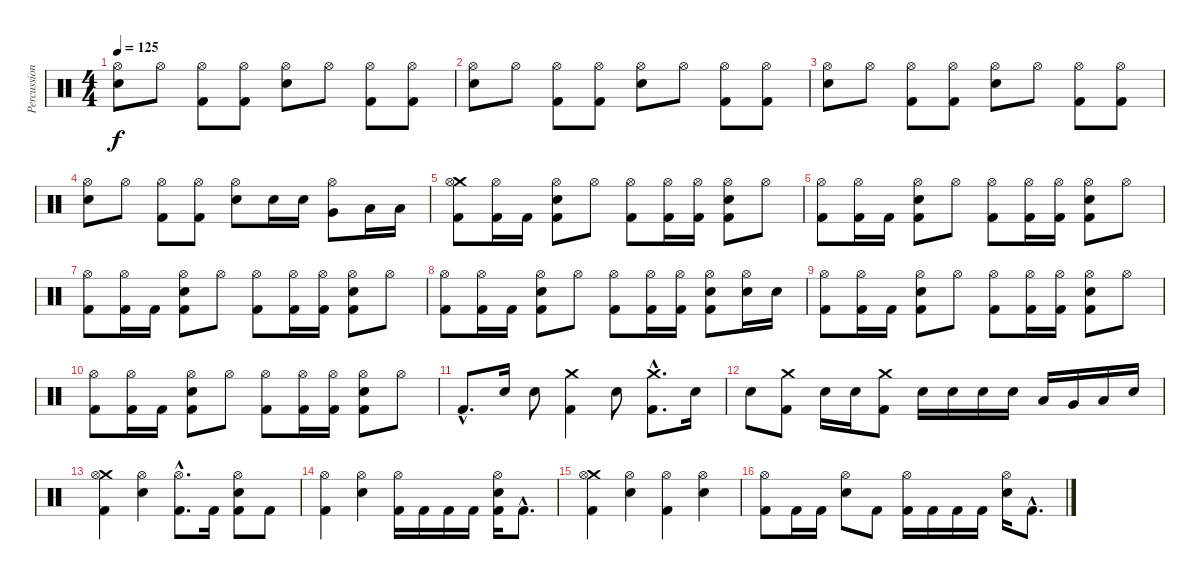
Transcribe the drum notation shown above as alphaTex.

\track ("Percussion" "Percussion") {instrument percussion}
\staff {score}
\articulation defaults
\ts (4 4)
\tempo 125
\clef neutral
\ks c
("Hi-Hat (open)" "Electric Snare (hit)").8{dy f} "Hi-Hat (open)".8 ("Hi-Hat (open)" "Kick (hit) 2").8 ("Hi-Hat (open)" "Kick (hit) 2").8 ("Hi-Hat (open)" "Electric Snare (hit)").8 "Hi-Hat (open)".8 ("Hi-Hat (open)" "Kick (hit) 2").8 ("Hi-Hat (open)" "Kick (hit) 2").8 |
("Hi-Hat (open)" "Electric Snare (hit)").8 "Hi-Hat (open)".8 ("Hi-Hat (open)" "Kick (hit) 2").8 ("Hi-Hat (open)" "Kick (hit) 2").8 ("Hi-Hat (open)" "Electric Snare (hit)").8 "Hi-Hat (open)".8 ("Hi-Hat (open)" "Kick (hit) 2").8 ("Hi-Hat (open)" "Kick (hit) 2").8 |
("Hi-Hat (open)" "Electric Snare (hit)").8 "Hi-Hat (open)".8 ("Hi-Hat (open)" "Kick (hit) 2").8 ("Hi-Hat (open)" "Kick (hit) 2").8 ("Hi-Hat (open)" "Electric Snare (hit)").8 "Hi-Hat (open)".8 ("Hi-Hat (open)" "Kick (hit) 2").8 ("Hi-Hat (open)" "Kick (hit) 2").8 |
("Hi-Hat (open)" "Electric Snare (hit)").8 "Hi-Hat (open)".8 ("Hi-Hat (open)" "Kick (hit) 2").8 ("Hi-Hat (open)" "Kick (hit) 2").8 ("Hi-Hat (open)" "Electric Snare (hit)").8 "Electric Snare (hit)".16 "Electric Snare (hit)".16 ("Hi-Hat (open)" "Very Low Tom (hit)").8 "Low Tom (hit)".16 "Low Tom (hit)".16 |
("Crash medium (hit)" "Hi-Hat (open)" "Kick (hit) 2").8 ("Hi-Hat (open)" "Kick (hit) 2").16 "Kick (hit) 2".16 ("Hi-Hat (open)" "Electric Snare (hit)" "Kick (hit) 2").8 "Hi-Hat (open)".8 ("Hi-Hat (open)" "Kick (hit) 2").8 ("Hi-Hat (open)" "Kick (hit) 2").16 ("Hi-Hat (open)" "Kick (hit) 2").16 ("Hi-Hat (open)" "Electric Snare (hit)" "Kick (hit) 2").8 "Hi-Hat (open)".8 |
("Hi-Hat (open)" "Kick (hit) 2").8 ("Hi-Hat (open)" "Kick (hit) 2").16 "Kick (hit) 2".16 ("Hi-Hat (open)" "Electric Snare (hit)" "Kick (hit) 2").8 "Hi-Hat (open)".8 ("Hi-Hat (open)" "Kick (hit) 2").8 ("Hi-Hat (open)" "Kick (hit) 2").16 ("Hi-Hat (open)" "Kick (hit) 2").16 ("Hi-Hat (open)" "Electric Snare (hit)" "Kick (hit) 2").8 "Hi-Hat (open)".8 |
("Hi-Hat (open)" "Kick (hit) 2").8 ("Hi-Hat (open)" "Kick (hit) 2").16 "Kick (hit) 2".16 ("Hi-Hat (open)" "Electric Snare (hit)" "Kick (hit) 2").8 "Hi-Hat (open)".8 ("Hi-Hat (open)" "Kick (hit) 2").8 ("Hi-Hat (open)" "Kick (hit) 2").16 ("Hi-Hat (open)" "Kick (hit) 2").16 ("Hi-Hat (open)" "Electric Snare (hit)" "Kick (hit) 2").8 "Hi-Hat (open)".8 |
("Hi-Hat (open)" "Kick (hit) 2").8 ("Hi-Hat (open)" "Kick (hit) 2").16 "Kick (hit) 2".16 ("Hi-Hat (open)" "Electric Snare (hit)" "Kick (hit) 2").8 "Hi-Hat (open)".8 ("Hi-Hat (open)" "Kick (hit) 2").8 ("Hi-Hat (open)" "Kick (hit) 2").16 ("Hi-Hat (open)" "Kick (hit) 2").16 ("Hi-Hat (open)" "Electric Snare (hit)" "Kick (hit) 2").8 ("Hi-Hat (open)" "Electric Snare (hit)").16 "Electric Snare (hit)".16 |
("Hi-Hat (open)" "Kick (hit) 2").8 ("Hi-Hat (open)" "Kick (hit) 2").16 "Kick (hit) 2".16 ("Hi-Hat (open)" "Electric Snare (hit)" "Kick (hit) 2").8 "Hi-Hat (open)".8 ("Hi-Hat (open)" "Kick (hit) 2").8 ("Hi-Hat (open)" "Kick (hit) 2").16 ("Hi-Hat (open)" "Kick (hit) 2").16 ("Hi-Hat (open)" "Electric Snare (hit)" "Kick (hit) 2").8 "Hi-Hat (open)".8 |
("Hi-Hat (open)" "Kick (hit) 2").8 ("Hi-Hat (open)" "Kick (hit) 2").16 "Kick (hit) 2".16 ("Hi-Hat (open)" "Electric Snare (hit)" "Kick (hit) 2").8 "Hi-Hat (open)".8 ("Hi-Hat (open)" "Kick (hit) 2").8 ("Hi-Hat (open)" "Kick (hit) 2").16 ("Hi-Hat (open)" "Kick (hit) 2").16 ("Hi-Hat (open)" "Electric Snare (hit)" "Kick (hit) 2").8 "Hi-Hat (open)".8 |
"Kick (hit) 2"{hac}.8{d} "Electric Snare (hit)".16 "Electric Snare (hit)".8 ("Crash medium (hit)" "Kick (hit) 2").4 "Electric Snare (hit)".8 ("Crash medium (hit)" "Kick (hit) 2"{hac}).8{d} "Electric Snare (hit)".16 |
"Electric Snare (hit)".8 ("Crash medium (hit)" "Kick (hit) 2").8 "Electric Snare (hit)".16 "Electric Snare (hit)".16 ("Crash medium (hit)" "Kick (hit) 2").8 "Electric Snare (hit)".16 "Electric Snare (hit)".16 "Electric Snare (hit)".16 "Electric Snare (hit)".16 "Low Tom (hit)".16 "Very Low Tom (hit)".16 "Low Floor Tom (hit)".16 "Electric Snare (hit)".16 |
("Crash medium (hit)" "Hi-Hat (open)" "Kick (hit) 2").4 ("Hi-Hat (open)" "Electric Snare (hit)").4 ("Hi-Hat (open)"{hac} "Kick (hit) 2"{hac}).8{d} "Kick (hit) 2".16 ("Hi-Hat (open)" "Electric Snare (hit)" "Kick (hit) 2").8 "Kick (hit) 2".8 |
("Hi-Hat (open)" "Kick (hit) 2").4 ("Hi-Hat (open)" "Electric Snare (hit)").4 ("Hi-Hat (open)" "Kick (hit) 2").16 "Kick (hit) 2".16 "Kick (hit) 2".16 "Kick (hit) 2".16 ("Hi-Hat (open)" "Electric Snare (hit)" "Kick (hit) 2").16 "Kick (hit) 2"{hac}.8{d} |
("Crash medium (hit)" "Hi-Hat (open)" "Kick (hit) 2").4 ("Hi-Hat (open)" "Electric Snare (hit)").4 ("Hi-Hat (open)" "Kick (hit) 2").4 ("Hi-Hat (open)" "Electric Snare (hit)").4 |
("Hi-Hat (open)" "Kick (hit) 2").8 "Kick (hit) 2".16 "Kick (hit) 2".16 ("Hi-Hat (open)" "Electric Snare (hit)").8 "Kick (hit) 2".8 ("Hi-Hat (open)" "Kick (hit) 2").16 "Kick (hit) 2".16 "Kick (hit) 2".16 "Kick (hit) 2".16 ("Hi-Hat (open)" "Electric Snare (hit)").16 "Kick (hit) 2"{hac}.8{d}
